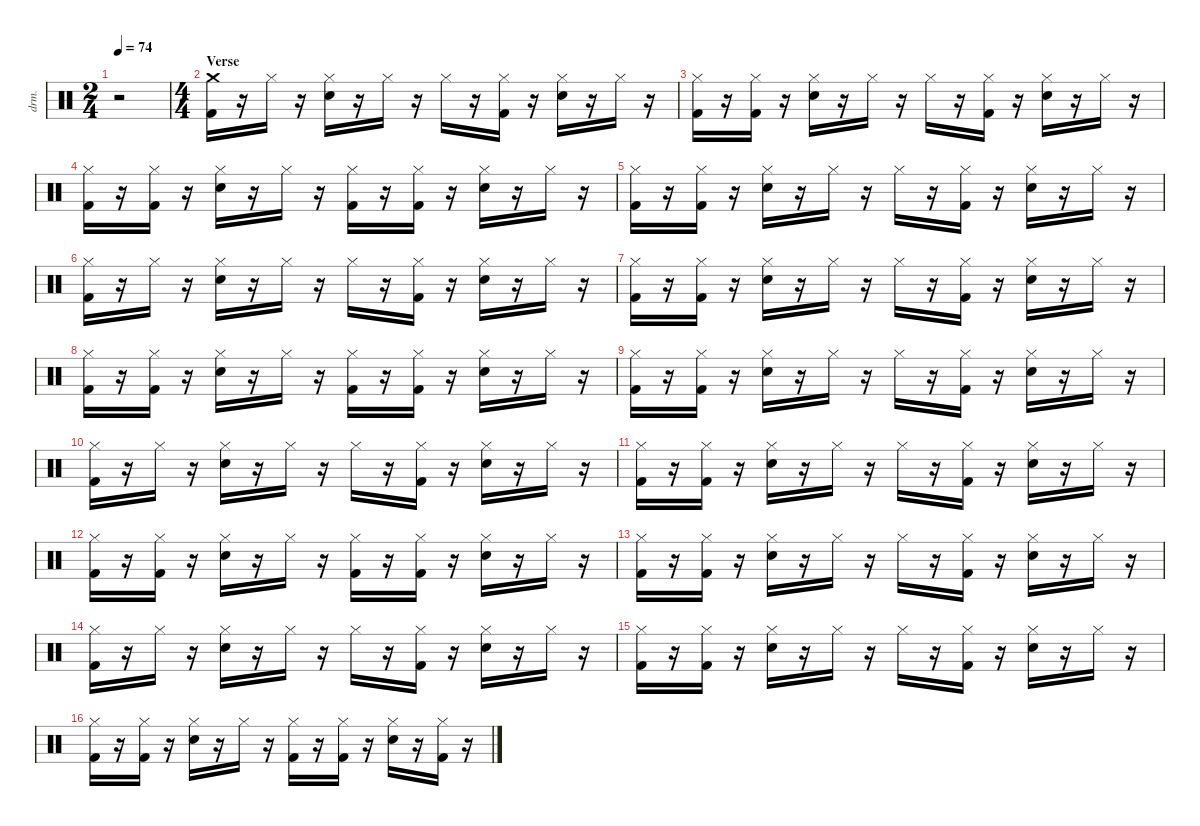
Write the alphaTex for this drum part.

\defaultSystemsLayout 4
\hideDynamics
\bracketExtendMode nobrackets
\track ("Dave Grohl" "drm.") {instrument percussion}
\staff {score}
\articulation defaults
\ts (2 4)
\tempo 74
\clef neutral
\ks c
r.2{dy f} |
\ts (4 4)
\section ("" "Verse")
("Crash medium (hit)" "Kick (hit) 2").16 r.16 "Hi-Hat (closed)".16 r.16 ("Hi-Hat (closed)" "Snare (hit) 2").16 r.16 "Hi-Hat (closed)".16 r.16 "Hi-Hat (closed)".16 r.16 ("Hi-Hat (closed)" "Kick (hit) 2").16 r.16 ("Hi-Hat (closed)" "Snare (hit) 2").16 r.16 "Hi-Hat (closed)".16 r.16 |
("Hi-Hat (closed)" "Kick (hit) 2").16 r.16 ("Hi-Hat (closed)" "Kick (hit) 2").16 r.16 ("Hi-Hat (closed)" "Snare (hit) 2").16 r.16 "Hi-Hat (closed)".16 r.16 "Hi-Hat (closed)".16 r.16 ("Hi-Hat (closed)" "Kick (hit) 2").16 r.16 ("Hi-Hat (closed)" "Snare (hit) 2").16 r.16 "Hi-Hat (closed)".16 r.16 |
("Hi-Hat (closed)" "Kick (hit) 2").16 r.16 ("Hi-Hat (closed)" "Kick (hit) 2").16 r.16 ("Hi-Hat (closed)" "Snare (hit) 2").16 r.16 "Hi-Hat (closed)".16 r.16 ("Hi-Hat (closed)" "Kick (hit) 2").16 r.16 ("Hi-Hat (closed)" "Kick (hit) 2").16 r.16 ("Hi-Hat (closed)" "Snare (hit) 2").16 r.16 "Hi-Hat (closed)".16 r.16 |
("Hi-Hat (closed)" "Kick (hit) 2").16 r.16 ("Hi-Hat (closed)" "Kick (hit) 2").16 r.16 ("Hi-Hat (closed)" "Snare (hit) 2").16 r.16 "Hi-Hat (closed)".16 r.16 "Hi-Hat (closed)".16 r.16 ("Hi-Hat (closed)" "Kick (hit) 2").16 r.16 ("Hi-Hat (closed)" "Snare (hit) 2").16 r.16 "Hi-Hat (closed)".16 r.16 |
("Hi-Hat (closed)" "Kick (hit) 2").16 r.16 "Hi-Hat (closed)".16 r.16 ("Hi-Hat (closed)" "Snare (hit) 2").16 r.16 "Hi-Hat (closed)".16 r.16 "Hi-Hat (closed)".16 r.16 ("Hi-Hat (closed)" "Kick (hit) 2").16 r.16 ("Hi-Hat (closed)" "Snare (hit) 2").16 r.16 "Hi-Hat (closed)".16 r.16 |
("Hi-Hat (closed)" "Kick (hit) 2").16 r.16 ("Hi-Hat (closed)" "Kick (hit) 2").16 r.16 ("Hi-Hat (closed)" "Snare (hit) 2").16 r.16 "Hi-Hat (closed)".16 r.16 "Hi-Hat (closed)".16 r.16 ("Hi-Hat (closed)" "Kick (hit) 2").16 r.16 ("Hi-Hat (closed)" "Snare (hit) 2").16 r.16 "Hi-Hat (closed)".16 r.16 |
("Hi-Hat (closed)" "Kick (hit) 2").16 r.16 ("Hi-Hat (closed)" "Kick (hit) 2").16 r.16 ("Hi-Hat (closed)" "Snare (hit) 2").16 r.16 "Hi-Hat (closed)".16 r.16 ("Hi-Hat (closed)" "Kick (hit) 2").16 r.16 ("Hi-Hat (closed)" "Kick (hit) 2").16 r.16 ("Hi-Hat (closed)" "Snare (hit) 2").16 r.16 "Hi-Hat (closed)".16 r.16 |
("Hi-Hat (closed)" "Kick (hit) 2").16 r.16 ("Hi-Hat (closed)" "Kick (hit) 2").16 r.16 ("Hi-Hat (closed)" "Snare (hit) 2").16 r.16 "Hi-Hat (closed)".16 r.16 "Hi-Hat (closed)".16 r.16 ("Hi-Hat (closed)" "Kick (hit) 2").16 r.16 ("Hi-Hat (closed)" "Snare (hit) 2").16 r.16 "Hi-Hat (closed)".16 r.16 |
("Hi-Hat (closed)" "Kick (hit) 2").16 r.16 "Hi-Hat (closed)".16 r.16 ("Hi-Hat (closed)" "Snare (hit) 2").16 r.16 "Hi-Hat (closed)".16 r.16 "Hi-Hat (closed)".16 r.16 ("Hi-Hat (closed)" "Kick (hit) 2").16 r.16 ("Hi-Hat (closed)" "Snare (hit) 2").16 r.16 "Hi-Hat (closed)".16 r.16 |
("Hi-Hat (closed)" "Kick (hit) 2").16 r.16 ("Hi-Hat (closed)" "Kick (hit) 2").16 r.16 ("Hi-Hat (closed)" "Snare (hit) 2").16 r.16 "Hi-Hat (closed)".16 r.16 "Hi-Hat (closed)".16 r.16 ("Hi-Hat (closed)" "Kick (hit) 2").16 r.16 ("Hi-Hat (closed)" "Snare (hit) 2").16 r.16 "Hi-Hat (closed)".16 r.16 |
("Hi-Hat (closed)" "Kick (hit) 2").16 r.16 ("Hi-Hat (closed)" "Kick (hit) 2").16 r.16 ("Hi-Hat (closed)" "Snare (hit) 2").16 r.16 "Hi-Hat (closed)".16 r.16 ("Hi-Hat (closed)" "Kick (hit) 2").16 r.16 ("Hi-Hat (closed)" "Kick (hit) 2").16 r.16 ("Hi-Hat (closed)" "Snare (hit) 2").16 r.16 "Hi-Hat (closed)".16 r.16 |
("Hi-Hat (closed)" "Kick (hit) 2").16 r.16 ("Hi-Hat (closed)" "Kick (hit) 2").16 r.16 ("Hi-Hat (closed)" "Snare (hit) 2").16 r.16 "Hi-Hat (closed)".16 r.16 "Hi-Hat (closed)".16 r.16 ("Hi-Hat (closed)" "Kick (hit) 2").16 r.16 ("Hi-Hat (closed)" "Snare (hit) 2").16 r.16 "Hi-Hat (closed)".16 r.16 |
("Hi-Hat (closed)" "Kick (hit) 2").16 r.16 "Hi-Hat (closed)".16 r.16 ("Hi-Hat (closed)" "Snare (hit) 2").16 r.16 "Hi-Hat (closed)".16 r.16 "Hi-Hat (closed)".16 r.16 ("Hi-Hat (closed)" "Kick (hit) 2").16 r.16 ("Hi-Hat (closed)" "Snare (hit) 2").16 r.16 "Hi-Hat (closed)".16 r.16 |
("Hi-Hat (closed)" "Kick (hit) 2").16 r.16 ("Hi-Hat (closed)" "Kick (hit) 2").16 r.16 ("Hi-Hat (closed)" "Snare (hit) 2").16 r.16 "Hi-Hat (closed)".16 r.16 "Hi-Hat (closed)".16 r.16 ("Hi-Hat (closed)" "Kick (hit) 2").16 r.16 ("Hi-Hat (closed)" "Snare (hit) 2").16 r.16 "Hi-Hat (closed)".16 r.16 |
("Hi-Hat (closed)" "Kick (hit) 2").16 r.16 ("Hi-Hat (closed)" "Kick (hit) 2").16 r.16 ("Hi-Hat (closed)" "Snare (hit) 2").16 r.16 "Hi-Hat (closed)".16 r.16 ("Hi-Hat (closed)" "Kick (hit) 2").16 r.16 ("Hi-Hat (closed)" "Kick (hit) 2").16 r.16 ("Hi-Hat (closed)" "Snare (hit) 2").16 r.16 ("Hi-Hat (closed)" "Kick (hit) 2").16 r.16
